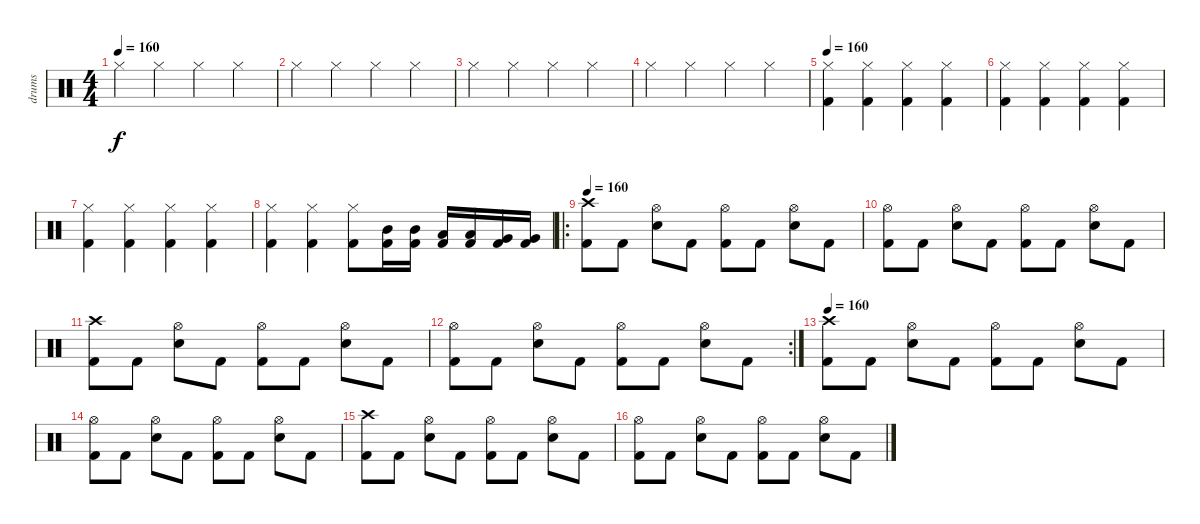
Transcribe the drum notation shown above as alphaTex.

\track ("drums" "drums") {instrument percussion}
\staff {score}
\articulation defaults
\ts (4 4)
\tempo 160
\clef neutral
\ks c "Hi-Hat (closed)".4{dy f} "Hi-Hat (closed)".4 "Hi-Hat (closed)".4 "Hi-Hat (closed)".4
|
"Hi-Hat (closed)".4 "Hi-Hat (closed)".4 "Hi-Hat (closed)".4 "Hi-Hat (closed)".4 |
"Hi-Hat (closed)".4 "Hi-Hat (closed)".4 "Hi-Hat (closed)".4 "Hi-Hat (closed)".4 |
"Hi-Hat (closed)".4 "Hi-Hat (closed)".4 "Hi-Hat (closed)".4 "Hi-Hat (closed)".4 |
\tempo 160
("Kick (hit) 2" "Hi-Hat (closed)").4 ("Kick (hit) 2" "Hi-Hat (closed)").4 ("Kick (hit) 2" "Hi-Hat (closed)").4 ("Kick (hit) 2" "Hi-Hat (closed)").4 |
("Kick (hit) 2" "Hi-Hat (closed)").4 ("Kick (hit) 2" "Hi-Hat (closed)").4 ("Kick (hit) 2" "Hi-Hat (closed)").4 ("Kick (hit) 2" "Hi-Hat (closed)").4 |
("Kick (hit) 2" "Hi-Hat (closed)").4 ("Kick (hit) 2" "Hi-Hat (closed)").4 ("Kick (hit) 2" "Hi-Hat (closed)").4 ("Kick (hit) 2" "Hi-Hat (closed)").4 |
("Kick (hit) 2" "Hi-Hat (closed)").4 ("Kick (hit) 2" "Hi-Hat (closed)").4 ("Kick (hit) 2" "Hi-Hat (closed)").8 ("Kick (hit) 2" "Mid Tom (hit)").16 ("Kick (hit) 2" "Mid Tom (hit)").16 ("Kick (hit) 2" "Low Tom (hit)").16 ("Kick (hit) 2" "Low Tom (hit)").16 ("Kick (hit) 2" "Very Low Tom (hit)").16 ("Kick (hit) 2" "Very Low Tom (hit)").16 |
\ro
\tempo 160
("Crash high (hit)" "Kick (hit) 2").8 "Kick (hit) 2".8 ("Hi-Hat (open)" "Electric Snare (hit)").8 "Kick (hit) 2".8 ("Hi-Hat (open)" "Kick (hit) 2").8 "Kick (hit) 2".8 ("Hi-Hat (open)" "Electric Snare (hit)").8 "Kick (hit) 2".8 |
("Hi-Hat (open)" "Kick (hit) 2").8 "Kick (hit) 2".8 ("Hi-Hat (open)" "Electric Snare (hit)").8 "Kick (hit) 2".8 ("Hi-Hat (open)" "Kick (hit) 2").8 "Kick (hit) 2".8 ("Hi-Hat (open)" "Electric Snare (hit)").8 "Kick (hit) 2".8 |
("Crash high (hit)" "Kick (hit) 2").8 "Kick (hit) 2".8 ("Hi-Hat (open)" "Electric Snare (hit)").8 "Kick (hit) 2".8 ("Hi-Hat (open)" "Kick (hit) 2").8 "Kick (hit) 2".8 ("Hi-Hat (open)" "Electric Snare (hit)").8 "Kick (hit) 2".8 |
\rc 2
("Hi-Hat (open)" "Kick (hit) 2").8 "Kick (hit) 2".8 ("Hi-Hat (open)" "Electric Snare (hit)").8 "Kick (hit) 2".8 ("Hi-Hat (open)" "Kick (hit) 2").8 "Kick (hit) 2".8 ("Hi-Hat (open)" "Electric Snare (hit)").8 "Kick (hit) 2".8 |
\tempo 160
("Crash high (hit)" "Kick (hit) 2").8{volume 12} "Kick (hit) 2".8 ("Hi-Hat (open)" "Electric Snare (hit)").8 "Kick (hit) 2".8 ("Hi-Hat (open)" "Kick (hit) 2").8 "Kick (hit) 2".8 ("Hi-Hat (open)" "Electric Snare (hit)").8 "Kick (hit) 2".8 |
("Hi-Hat (open)" "Kick (hit) 2").8 "Kick (hit) 2".8 ("Hi-Hat (open)" "Electric Snare (hit)").8 "Kick (hit) 2".8 ("Hi-Hat (open)" "Kick (hit) 2").8 "Kick (hit) 2".8 ("Hi-Hat (open)" "Electric Snare (hit)").8 "Kick (hit) 2".8 |
("Crash high (hit)" "Kick (hit) 2").8 "Kick (hit) 2".8 ("Hi-Hat (open)" "Electric Snare (hit)").8 "Kick (hit) 2".8 ("Hi-Hat (open)" "Kick (hit) 2").8 "Kick (hit) 2".8 ("Hi-Hat (open)" "Electric Snare (hit)").8 "Kick (hit) 2".8 |
("Hi-Hat (open)" "Kick (hit) 2").8 "Kick (hit) 2".8 ("Hi-Hat (open)" "Electric Snare (hit)").8 "Kick (hit) 2".8 ("Hi-Hat (open)" "Kick (hit) 2").8 "Kick (hit) 2".8 ("Hi-Hat (open)" "Electric Snare (hit)").8 "Kick (hit) 2".8
